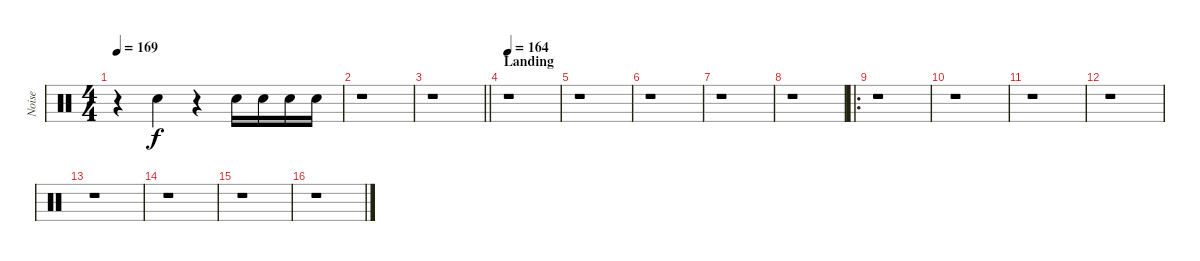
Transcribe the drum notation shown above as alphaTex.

\track ("Noise" "Noise") {instrument percussion}
\staff {score}
\articulation defaults
\ts (4 4)
\tempo 169
\clef neutral
\ks c
r.4{dy f} "Snare (hit) 2".4 r.4 "Snare (hit) 2".16 "Snare (hit) 2".16 "Snare (hit) 2".16 "Snare (hit) 2".16 |
r.1 |
\barLineRight lightlight
r.1 |
\section ("" "Landing")
\tempo 164
r.1{volume 13} |
r.1 |
r.1 |
r.1 |
r.1 |
\ro
r.1 |
r.1 |
r.1 |
r.1 |
r.1 |
r.1 |
r.1 |
r.1
